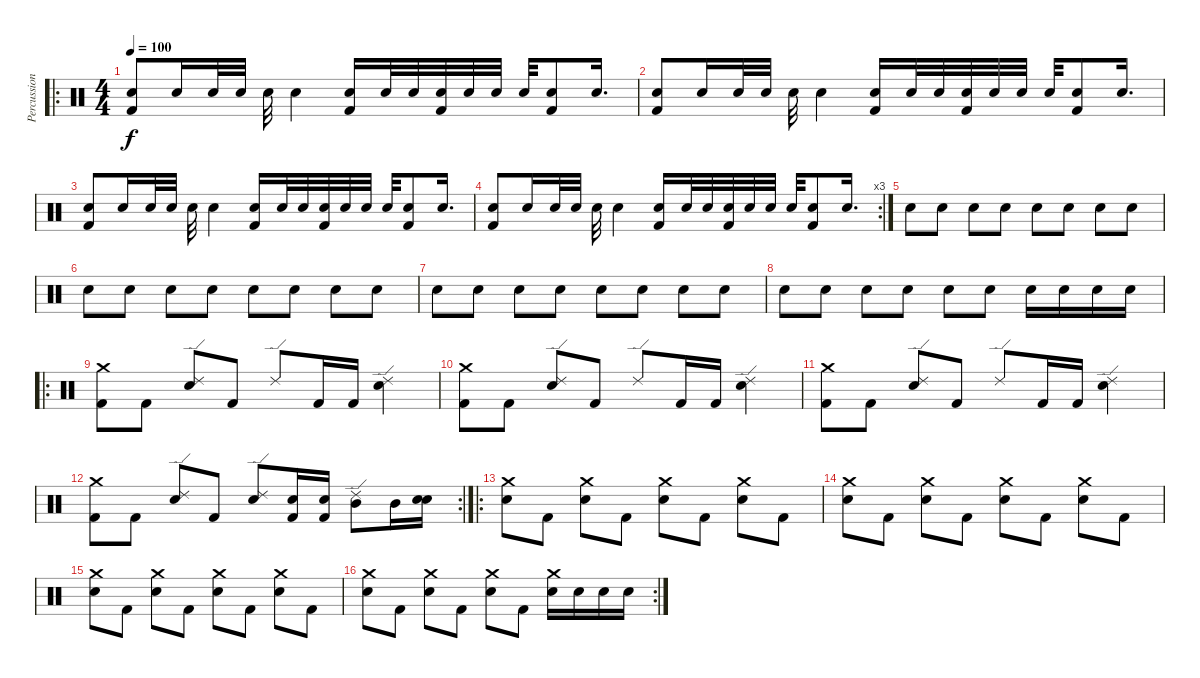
\track ("Percussion" "Percussion") {instrument percussion}
\staff {score}
\articulation defaults
\ro
\ts (4 4)
\tempo 100
\clef neutral
\ks c
("Snare (hit) 2" "Kick (hit) 2").8{dy f} "Snare (hit) 2".16 "Snare (hit) 2".32 "Snare (hit) 2".32 "Snare (hit) 2".32 "Snare (hit) 2".4 ("Snare (hit) 2" "Kick (hit) 2").16 "Snare (hit) 2".32 "Snare (hit) 2".32 ("Snare (hit) 2" "Kick (hit) 2").32 "Snare (hit) 2".32 "Snare (hit) 2".32 "Snare (hit) 2".32 ("Snare (hit) 2" "Kick (hit) 2").8 "Snare (hit) 2".16{d} |
("Snare (hit) 2" "Kick (hit) 2").8 "Snare (hit) 2".16 "Snare (hit) 2".32 "Snare (hit) 2".32 "Snare (hit) 2".32 "Snare (hit) 2".4 ("Snare (hit) 2" "Kick (hit) 2").16 "Snare (hit) 2".32 "Snare (hit) 2".32 ("Snare (hit) 2" "Kick (hit) 2").32 "Snare (hit) 2".32 "Snare (hit) 2".32 "Snare (hit) 2".32 ("Snare (hit) 2" "Kick (hit) 2").8 "Snare (hit) 2".16{d} |
("Snare (hit) 2" "Kick (hit) 2").8 "Snare (hit) 2".16 "Snare (hit) 2".32 "Snare (hit) 2".32 "Snare (hit) 2".32 "Snare (hit) 2".4 ("Snare (hit) 2" "Kick (hit) 2").16 "Snare (hit) 2".32 "Snare (hit) 2".32 ("Snare (hit) 2" "Kick (hit) 2").32 "Snare (hit) 2".32 "Snare (hit) 2".32 "Snare (hit) 2".32 ("Snare (hit) 2" "Kick (hit) 2").8 "Snare (hit) 2".16{d} |
\rc 3
("Snare (hit) 2" "Kick (hit) 2").8 "Snare (hit) 2".16 "Snare (hit) 2".32 "Snare (hit) 2".32 "Snare (hit) 2".32 "Snare (hit) 2".4 ("Snare (hit) 2" "Kick (hit) 2").16 "Snare (hit) 2".32 "Snare (hit) 2".32 ("Snare (hit) 2" "Kick (hit) 2").32 "Snare (hit) 2".32 "Snare (hit) 2".32 "Snare (hit) 2".32 ("Snare (hit) 2" "Kick (hit) 2").8 "Snare (hit) 2".16{d} |
"Snare (hit) 2".8 "Snare (hit) 2".8 "Snare (hit) 2".8 "Snare (hit) 2".8 "Snare (hit) 2".8 "Snare (hit) 2".8 "Snare (hit) 2".8 "Snare (hit) 2".8 |
"Snare (hit) 2".8 "Snare (hit) 2".8 "Snare (hit) 2".8 "Snare (hit) 2".8 "Snare (hit) 2".8 "Snare (hit) 2".8 "Snare (hit) 2".8 "Snare (hit) 2".8 |
"Snare (hit) 2".8 "Snare (hit) 2".8 "Snare (hit) 2".8 "Snare (hit) 2".8 "Snare (hit) 2".8 "Snare (hit) 2".8 "Snare (hit) 2".8 "Snare (hit) 2".8 |
"Snare (hit) 2".8 "Snare (hit) 2".8 "Snare (hit) 2".8 "Snare (hit) 2".8 "Snare (hit) 2".8 "Snare (hit) 2".8 "Snare (hit) 2".16 "Snare (hit) 2".16 "Snare (hit) 2".16 "Snare (hit) 2".16 |
\ro
("Crash medium (hit)" "Kick (hit) 2").8 "Kick (hit) 2".8 ("Ride (edge) 2" "Snare (hit) 2").8 "Kick (hit) 2".8 "Ride (edge) 2".8 "Kick (hit) 2".16 "Kick (hit) 2".16 ("Ride (edge) 2" "Snare (hit) 2").4 |
("Crash medium (hit)" "Kick (hit) 2").8 "Kick (hit) 2".8 ("Ride (edge) 2" "Snare (hit) 2").8 "Kick (hit) 2".8 "Ride (edge) 2".8 "Kick (hit) 2".16 "Kick (hit) 2".16 ("Ride (edge) 2" "Snare (hit) 2").4 |
("Crash medium (hit)" "Kick (hit) 2").8 "Kick (hit) 2".8 ("Ride (edge) 2" "Snare (hit) 2").8 "Kick (hit) 2".8 "Ride (edge) 2".8 "Kick (hit) 2".16 "Kick (hit) 2".16 ("Ride (edge) 2" "Snare (hit) 2").4 |
\rc 2
("Crash medium (hit)" "Kick (hit) 2").8 "Kick (hit) 2".8 ("Ride (edge) 2" "Snare (hit) 2").8 "Kick (hit) 2".8 ("Ride (edge) 2" "Snare (hit) 2").8 ("Snare (hit) 2" "Kick (hit) 2").16 ("Snare (hit) 2" "Kick (hit) 2").16 ("Ride (edge) 2" "Mid Tom (hit)").8 "Mid Tom (hit)".16 ("Snare (hit) 2" "Snare (hit) 2").16 |
\ro
("Crash medium (hit)" "Snare (hit) 2").8 "Kick (hit) 2".8 ("Crash medium (hit)" "Snare (hit) 2").8 "Kick (hit) 2".8 ("Crash medium (hit)" "Snare (hit) 2").8 "Kick (hit) 2".8 ("Crash medium (hit)" "Snare (hit) 2").8 "Kick (hit) 2".8 |
("Crash medium (hit)" "Snare (hit) 2").8 "Kick (hit) 2".8 ("Crash medium (hit)" "Snare (hit) 2").8 "Kick (hit) 2".8 ("Crash medium (hit)" "Snare (hit) 2").8 "Kick (hit) 2".8 ("Crash medium (hit)" "Snare (hit) 2").8 "Kick (hit) 2".8 |
("Crash medium (hit)" "Snare (hit) 2").8 "Kick (hit) 2".8 ("Crash medium (hit)" "Snare (hit) 2").8 "Kick (hit) 2".8 ("Crash medium (hit)" "Snare (hit) 2").8 "Kick (hit) 2".8 ("Crash medium (hit)" "Snare (hit) 2").8 "Kick (hit) 2".8 |
\rc 2
("Crash medium (hit)" "Snare (hit) 2").8 "Kick (hit) 2".8 ("Crash medium (hit)" "Snare (hit) 2").8 "Kick (hit) 2".8 ("Crash medium (hit)" "Snare (hit) 2").8 "Kick (hit) 2".8 ("Crash medium (hit)" "Snare (hit) 2").16 "Snare (hit) 2".16 "Snare (hit) 2".16 "Snare (hit) 2".16
